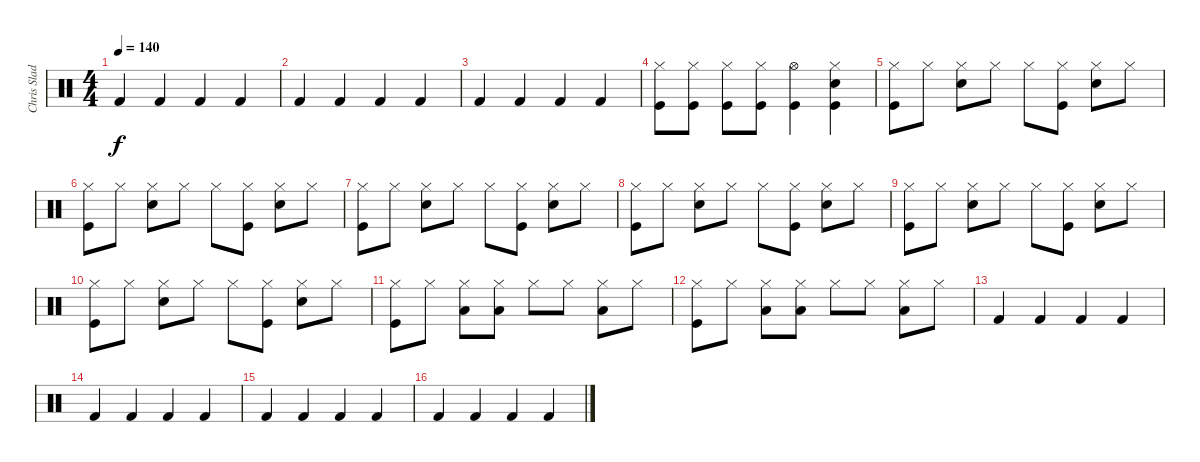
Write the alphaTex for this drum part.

\track ("Chris Slade" "Chris Slad") {instrument percussion}
\staff {score}
\articulation defaults
\ts (4 4)
\tempo 140
\clef neutral
\ks c "Kick (hit) 2".4{dy f} "Kick (hit) 2".4 "Kick (hit) 2".4 "Kick (hit) 2".4
|
"Kick (hit) 2".4 "Kick (hit) 2".4 "Kick (hit) 2".4 "Kick (hit) 2".4 |
"Kick (hit) 2".4 "Kick (hit) 2".4 "Kick (hit) 2".4 "Kick (hit) 2".4 |
("Hi-Hat (closed)" "Kick (hit)").8 ("Hi-Hat (closed)" "Kick (hit)").8 ("Hi-Hat (closed)" "Kick (hit)").8 ("Hi-Hat (closed)" "Kick (hit)").8 ("Hi-Hat (open)" "Kick (hit)").4 ("Hi-Hat (closed)" "Snare (hit) 2" "Kick (hit)").4 |
("Hi-Hat (closed)" "Kick (hit)").8 "Hi-Hat (closed)".8 ("Hi-Hat (closed)" "Snare (hit) 2").8 "Hi-Hat (closed)".8 "Hi-Hat (closed)".8 ("Hi-Hat (closed)" "Kick (hit)").8 ("Hi-Hat (closed)" "Snare (hit) 2").8 "Hi-Hat (closed)".8 |
("Hi-Hat (closed)" "Kick (hit)").8 "Hi-Hat (closed)".8 ("Hi-Hat (closed)" "Snare (hit) 2").8 "Hi-Hat (closed)".8 "Hi-Hat (closed)".8 ("Hi-Hat (closed)" "Kick (hit)").8 ("Hi-Hat (closed)" "Snare (hit) 2").8 "Hi-Hat (closed)".8 |
("Hi-Hat (closed)" "Kick (hit)").8 "Hi-Hat (closed)".8 ("Hi-Hat (closed)" "Snare (hit) 2").8 "Hi-Hat (closed)".8 "Hi-Hat (closed)".8 ("Hi-Hat (closed)" "Kick (hit)").8 ("Hi-Hat (closed)" "Snare (hit) 2").8 "Hi-Hat (closed)".8 |
("Hi-Hat (closed)" "Kick (hit)").8 "Hi-Hat (closed)".8 ("Hi-Hat (closed)" "Snare (hit) 2").8 "Hi-Hat (closed)".8 "Hi-Hat (closed)".8 ("Hi-Hat (closed)" "Kick (hit)").8 ("Hi-Hat (closed)" "Snare (hit) 2").8 "Hi-Hat (closed)".8 |
("Hi-Hat (closed)" "Kick (hit)").8 "Hi-Hat (closed)".8 ("Hi-Hat (closed)" "Snare (hit) 2").8 "Hi-Hat (closed)".8 "Hi-Hat (closed)".8 ("Hi-Hat (closed)" "Kick (hit)").8 ("Hi-Hat (closed)" "Snare (hit) 2").8 "Hi-Hat (closed)".8 |
("Hi-Hat (closed)" "Kick (hit)").8 "Hi-Hat (closed)".8 ("Hi-Hat (closed)" "Snare (hit) 2").8 "Hi-Hat (closed)".8 "Hi-Hat (closed)".8 ("Hi-Hat (closed)" "Kick (hit)").8 ("Hi-Hat (closed)" "Snare (hit) 2").8 "Hi-Hat (closed)".8 |
("Hi-Hat (closed)" "Kick (hit)").8 "Hi-Hat (closed)".8 ("Hi-Hat (closed)" "Low Tom (hit)").8 ("Hi-Hat (closed)" "Low Tom (hit)").8 "Hi-Hat (closed)".8 "Hi-Hat (closed)".8 ("Hi-Hat (closed)" "Low Tom (hit)").8 "Hi-Hat (closed)".8 |
("Hi-Hat (closed)" "Kick (hit)").8 "Hi-Hat (closed)".8 ("Hi-Hat (closed)" "Low Tom (hit)").8 ("Hi-Hat (closed)" "Low Tom (hit)").8 "Hi-Hat (closed)".8 "Hi-Hat (closed)".8 ("Hi-Hat (closed)" "Low Tom (hit)").8 "Hi-Hat (closed)".8 |
"Kick (hit) 2".4 "Kick (hit) 2".4 "Kick (hit) 2".4 "Kick (hit) 2".4 |
"Kick (hit) 2".4 "Kick (hit) 2".4 "Kick (hit) 2".4 "Kick (hit) 2".4 |
"Kick (hit) 2".4 "Kick (hit) 2".4 "Kick (hit) 2".4 "Kick (hit) 2".4 |
"Kick (hit) 2".4 "Kick (hit) 2".4 "Kick (hit) 2".4 "Kick (hit) 2".4
